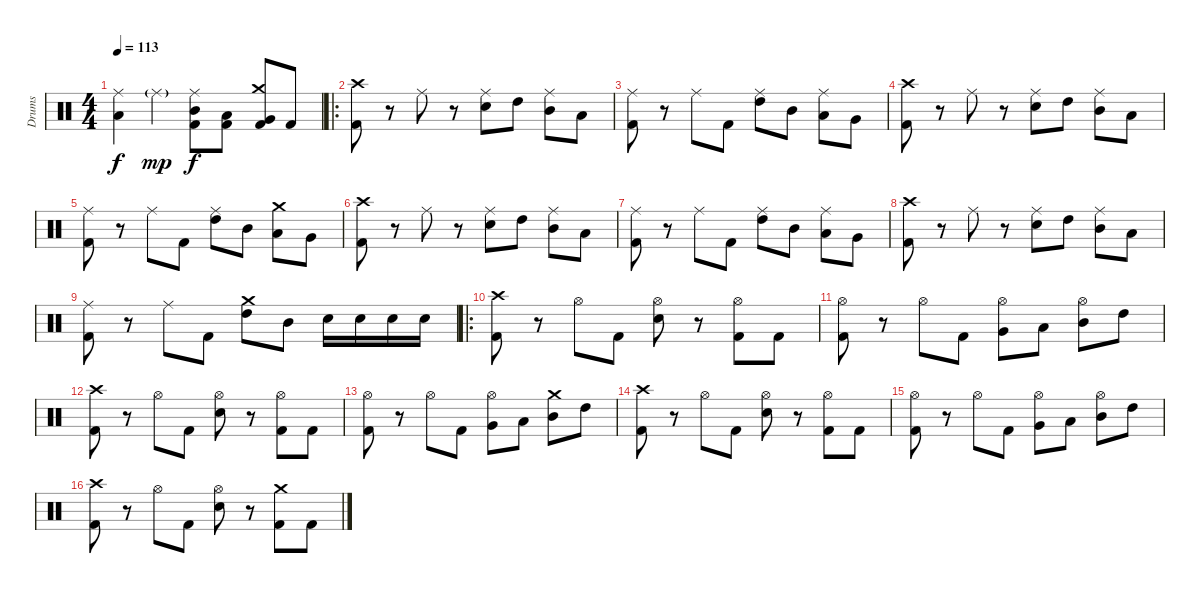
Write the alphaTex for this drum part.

\track ("Drums" "Drums") {instrument percussion}
\staff {score}
\articulation defaults
\ts (4 4)
\tempo 113
\clef neutral
\ks c
("Ride (middle)" "Low Floor Tom (hit)").4{dy f} "Ride (middle)"{g}.4{dy mp} ("Ride (middle)" "Kick (hit) 2" "Mid Tom (hit)").8{dy f} ("Kick (hit) 2" "Low Tom (hit)").8 ("Crash medium (hit)" "Kick (hit) 2" "Very Low Tom (hit)").8 "Kick (hit) 2".8 |
\ro
("Crash high (hit)" "Kick (hit) 2").8 r.8 "Ride (middle)".8 r.8 ("Ride (middle)" "Snare (hit) 2").8 "High Tom (hit)".8 ("Ride (middle)" "Mid Tom (hit)").8 "Low Tom (hit)".8 |
("Ride (middle)" "Kick (hit) 2").8 r.8 "Ride (middle)".8 "Kick (hit) 2".8 ("Ride (middle)" "High Tom (hit)").8 "Mid Tom (hit)".8 ("Ride (middle)" "Low Tom (hit)").8 "Very Low Tom (hit)".8 |
("Crash high (hit)" "Kick (hit) 2").8 r.8 "Ride (middle)".8 r.8 ("Ride (middle)" "Snare (hit) 2").8 "High Tom (hit)".8 ("Ride (middle)" "Mid Tom (hit)").8 "Low Tom (hit)".8 |
("Ride (middle)" "Kick (hit) 2").8 r.8 "Ride (middle)".8 "Kick (hit) 2".8 ("Ride (middle)" "High Tom (hit)").8 "Mid Tom (hit)".8 ("Crash medium (hit)" "Low Tom (hit)").8 "Very Low Tom (hit)".8 |
("Crash high (hit)" "Kick (hit) 2").8 r.8 "Ride (middle)".8 r.8 ("Ride (middle)" "Snare (hit) 2").8 "High Tom (hit)".8 ("Ride (middle)" "Mid Tom (hit)").8 "Low Tom (hit)".8 |
("Ride (middle)" "Kick (hit) 2").8 r.8 "Ride (middle)".8 "Kick (hit) 2".8 ("Ride (middle)" "High Tom (hit)").8 "Mid Tom (hit)".8 ("Ride (middle)" "Low Tom (hit)").8 "Very Low Tom (hit)".8 |
("Crash high (hit)" "Kick (hit) 2").8 r.8 "Ride (middle)".8 r.8 ("Ride (middle)" "Snare (hit) 2").8 "High Tom (hit)".8 ("Ride (middle)" "Mid Tom (hit)").8 "Low Tom (hit)".8 |
("Ride (middle)" "Kick (hit) 2").8 r.8 "Ride (middle)".8 "Kick (hit) 2".8 ("Crash medium (hit)" "High Tom (hit)").8 "Mid Tom (hit)".8 "Snare (hit) 2".16 "Snare (hit) 2".16 "Snare (hit) 2".16 "Snare (hit) 2".16 |
\ro
("Crash high (hit)" "Kick (hit) 2").8 r.8 "Hi-Hat (open)".8 "Kick (hit) 2".8 ("Hi-Hat (open)" "Snare (hit) 2").8 r.8 ("Hi-Hat (open)" "Kick (hit) 2").8 "Kick (hit) 2".8 |
("Hi-Hat (open)" "Kick (hit) 2").8 r.8 "Hi-Hat (open)".8 "Kick (hit) 2".8 ("Hi-Hat (open)" "Very Low Tom (hit)").8 "Low Tom (hit)".8 ("Hi-Hat (open)" "Mid Tom (hit)").8 "High Tom (hit)".8 |
("Crash high (hit)" "Kick (hit) 2").8 r.8 "Hi-Hat (open)".8 "Kick (hit) 2".8 ("Hi-Hat (open)" "Snare (hit) 2").8 r.8 ("Hi-Hat (open)" "Kick (hit) 2").8 "Kick (hit) 2".8 |
("Hi-Hat (open)" "Kick (hit) 2").8 r.8 "Hi-Hat (open)".8 "Kick (hit) 2".8 ("Hi-Hat (open)" "Very Low Tom (hit)").8 "Low Tom (hit)".8 ("Crash medium (hit)" "Mid Tom (hit)").8 "High Tom (hit)".8 |
("Crash high (hit)" "Kick (hit) 2").8 r.8 "Hi-Hat (open)".8 "Kick (hit) 2".8 ("Hi-Hat (open)" "Snare (hit) 2").8 r.8 ("Hi-Hat (open)" "Kick (hit) 2").8 "Kick (hit) 2".8 |
("Hi-Hat (open)" "Kick (hit) 2").8 r.8 "Hi-Hat (open)".8 "Kick (hit) 2".8 ("Hi-Hat (open)" "Very Low Tom (hit)").8 "Low Tom (hit)".8 ("Hi-Hat (open)" "Mid Tom (hit)").8 "High Tom (hit)".8 |
("Crash high (hit)" "Kick (hit) 2").8 r.8 "Hi-Hat (open)".8 "Kick (hit) 2".8 ("Hi-Hat (open)" "Snare (hit) 2").8 r.8 ("Crash medium (hit)" "Kick (hit) 2").8 "Kick (hit) 2".8
